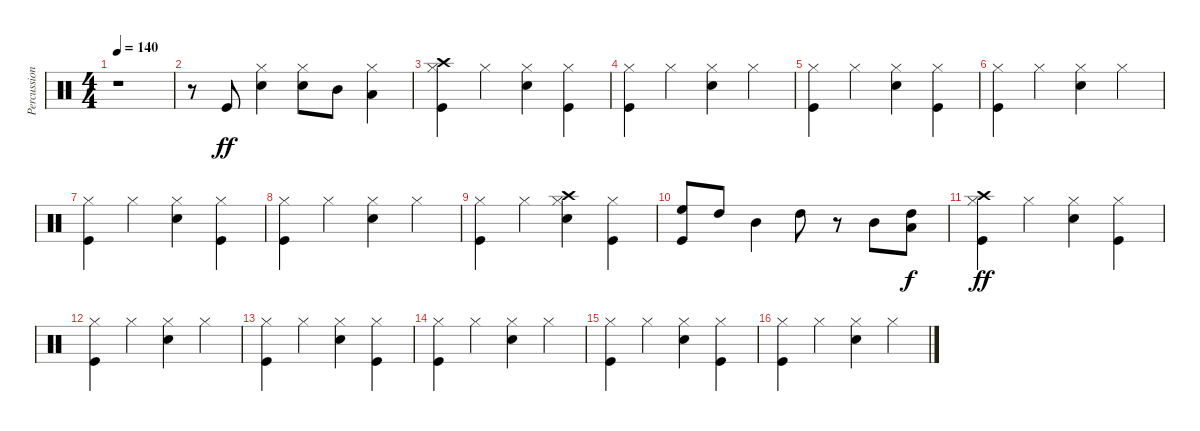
\track ("Percussions" "Percussion") {instrument percussion}
\staff {score}
\articulation defaults
\ts (4 4)
\tempo 140
\clef neutral
\ks c
r.1{dy ff} |
r.8 "Kick (hit)".8 ("Snare (hit) 2" "Hi-Hat (closed)").4 ("Snare (hit) 2" "Hi-Hat (closed)").8 "Mid Tom (hit)".8 ("Hi-Hat (closed)" "Low Tom (hit)").4 |
("Kick (hit)" "Hi-Hat (closed)" "Crash high (hit)").4 "Hi-Hat (closed)".4 ("Snare (hit) 2" "Hi-Hat (closed)").4 ("Kick (hit)" "Hi-Hat (closed)").4 |
("Kick (hit)" "Hi-Hat (closed)").4 "Hi-Hat (closed)".4 ("Snare (hit) 2" "Hi-Hat (closed)").4 "Hi-Hat (closed)".4 |
("Kick (hit)" "Hi-Hat (closed)").4 "Hi-Hat (closed)".4 ("Snare (hit) 2" "Hi-Hat (closed)").4 ("Kick (hit)" "Hi-Hat (closed)").4 |
("Kick (hit)" "Hi-Hat (closed)").4 "Hi-Hat (closed)".4 ("Snare (hit) 2" "Hi-Hat (closed)").4 "Hi-Hat (closed)".4 |
("Kick (hit)" "Hi-Hat (closed)").4 "Hi-Hat (closed)".4 ("Snare (hit) 2" "Hi-Hat (closed)").4 ("Kick (hit)" "Hi-Hat (closed)").4 |
("Kick (hit)" "Hi-Hat (closed)").4 "Hi-Hat (closed)".4 ("Snare (hit) 2" "Hi-Hat (closed)").4 "Hi-Hat (closed)".4 |
("Kick (hit)" "Hi-Hat (closed)").4 "Hi-Hat (closed)".4 ("Snare (hit) 2" "Hi-Hat (closed)" "Crash high (hit)").4 ("Kick (hit)" "Hi-Hat (closed)").4 |
("Kick (hit)" "High Floor Tom (hit)").8 "High Tom (hit)".8 "Mid Tom (hit)".4 "High Tom (hit)".8 r.8 "Mid Tom (hit)".8 ("Low Tom (hit)" "High Tom (hit)").8{dy f} |
("Kick (hit)" "Hi-Hat (closed)" "Crash high (hit)").4{dy ff} "Hi-Hat (closed)".4 ("Snare (hit) 2" "Hi-Hat (closed)").4 ("Kick (hit)" "Hi-Hat (closed)").4 |
("Kick (hit)" "Hi-Hat (closed)").4 "Hi-Hat (closed)".4 ("Snare (hit) 2" "Hi-Hat (closed)").4 "Hi-Hat (closed)".4 |
("Kick (hit)" "Hi-Hat (closed)").4 "Hi-Hat (closed)".4 ("Snare (hit) 2" "Hi-Hat (closed)").4 ("Kick (hit)" "Hi-Hat (closed)").4 |
("Kick (hit)" "Hi-Hat (closed)").4 "Hi-Hat (closed)".4 ("Snare (hit) 2" "Hi-Hat (closed)").4 "Hi-Hat (closed)".4 |
("Kick (hit)" "Hi-Hat (closed)").4 "Hi-Hat (closed)".4 ("Snare (hit) 2" "Hi-Hat (closed)").4 ("Kick (hit)" "Hi-Hat (closed)").4 |
("Kick (hit)" "Hi-Hat (closed)").4 "Hi-Hat (closed)".4 ("Snare (hit) 2" "Hi-Hat (closed)").4 "Hi-Hat (closed)".4
